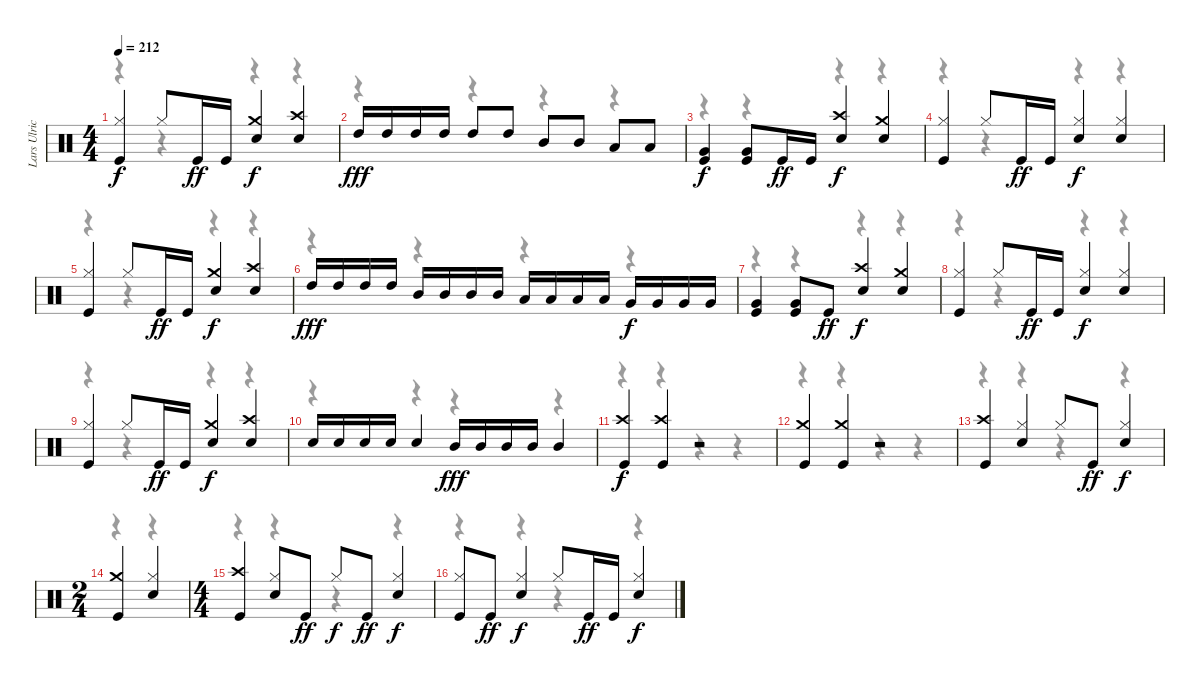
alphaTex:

\track ("Lars Ulrich" "Lars Ulric") {instrument percussion}
\staff {score}
\articulation defaults
\voice
\ts (4 4)
\tempo 212
\clef neutral
\ks c
("Hi-Hat (closed)" "Kick (hit)").4{dy f} "Hi-Hat (closed)".8 "Kick (hit)".16{dy ff} "Kick (hit)".16 ("Crash medium (hit)" "Snare (hit) 2").4{dy f} ("Crash high (hit)" "Snare (hit) 2").4 |
"High Tom (hit)".16{dy fff} "High Tom (hit)".16 "High Tom (hit)".16 "High Tom (hit)".16 "High Tom (hit)".8 "High Tom (hit)".8 "Mid Tom (hit)".8 "Mid Tom (hit)".8 "Low Tom (hit)".8 "Low Tom (hit)".8 |
("Very Low Tom (hit)" "Kick (hit)").4{dy f} ("Very Low Tom (hit)" "Kick (hit)").8 "Kick (hit)".16{dy ff} "Kick (hit)".16 ("Crash high (hit)" "Snare (hit) 2").4{dy f} ("Crash medium (hit)" "Snare (hit) 2").4 |
("Hi-Hat (closed)" "Kick (hit)").4 "Hi-Hat (closed)".8 "Kick (hit)".16{dy ff} "Kick (hit)".16 ("Hi-Hat (closed)" "Snare (hit) 2").4{dy f} ("Hi-Hat (closed)" "Snare (hit) 2").4 |
("Hi-Hat (closed)" "Kick (hit)").4 "Hi-Hat (closed)".8 "Kick (hit)".16{dy ff} "Kick (hit)".16 ("Crash medium (hit)" "Snare (hit) 2").4{dy f} ("Crash high (hit)" "Snare (hit) 2").4 |
"High Tom (hit)".16{dy fff} "High Tom (hit)".16 "High Tom (hit)".16 "High Tom (hit)".16 "Mid Tom (hit)".16 "Mid Tom (hit)".16 "Mid Tom (hit)".16 "Mid Tom (hit)".16 "Low Tom (hit)".16 "Low Tom (hit)".16 "Low Tom (hit)".16 "Low Tom (hit)".16 "Very Low Tom (hit)".16{dy f} "Very Low Tom (hit)".16 "Very Low Tom (hit)".16 "Very Low Tom (hit)".16 |
("Very Low Tom (hit)" "Kick (hit)").4 ("Very Low Tom (hit)" "Kick (hit)").8 "Kick (hit)".8{dy ff} ("Crash high (hit)" "Snare (hit) 2").4{dy f} ("Crash medium (hit)" "Snare (hit) 2").4 |
("Hi-Hat (closed)" "Kick (hit)").4 "Hi-Hat (closed)".8 "Kick (hit)".16{dy ff} "Kick (hit)".16 ("Hi-Hat (closed)" "Snare (hit) 2").4{dy f} ("Hi-Hat (closed)" "Snare (hit) 2").4 |
("Hi-Hat (closed)" "Kick (hit)").4 "Hi-Hat (closed)".8 "Kick (hit)".16{dy ff} "Kick (hit)".16 ("Crash medium (hit)" "Snare (hit) 2").4{dy f} ("Crash high (hit)" "Snare (hit) 2").4 |
"Snare (hit) 2".16 "Snare (hit) 2".16 "Snare (hit) 2".16 "Snare (hit) 2".16 "Snare (hit) 2".4 "Mid Tom (hit)".16{dy fff} "Mid Tom (hit)".16 "Mid Tom (hit)".16 "Mid Tom (hit)".16 "Mid Tom (hit)".4 |
("Crash high (hit)" "Kick (hit)").4{dy f} ("Crash high (hit)" "Kick (hit)").4 r.2 |
("Crash medium (hit)" "Kick (hit)").4 ("Crash medium (hit)" "Kick (hit)").4 r.2 |
("Crash high (hit)" "Kick (hit)").4 ("Hi-Hat (closed)" "Snare (hit) 2").4 "Hi-Hat (closed)".8 "Kick (hit)".8{dy ff} ("Hi-Hat (closed)" "Snare (hit) 2").4{dy f} |
\ts (2 4)
("Crash medium (hit)" "Kick (hit)").4 ("Hi-Hat (closed)" "Snare (hit) 2").4 |
\ts (4 4)
("Crash high (hit)" "Kick (hit)").4 ("Hi-Hat (closed)" "Snare (hit) 2").8 "Kick (hit)".8{dy ff} "Hi-Hat (closed)".8{dy f} "Kick (hit)".8{dy ff} ("Hi-Hat (closed)" "Snare (hit) 2").4{dy f} |
("Hi-Hat (closed)" "Kick (hit)").8 "Kick (hit)".8{dy ff} ("Hi-Hat (closed)" "Snare (hit) 2").4{dy f} "Hi-Hat (closed)".8 "Kick (hit)".16{dy ff} "Kick (hit)".16 ("Hi-Hat (closed)" "Snare (hit) 2").4{dy f}
\voice
\clef neutral
\ottava regular
\simile none
\ks c
r.4{dy f} r.4 r.4 r.4 |
r.4 r.4 r.4 r.4 |
r.4 r.4 r.4 r.4 |
r.4 r.4 r.4 r.4 |
r.4 r.4 r.4 r.4 |
r.4 r.4 r.4 r.4 |
r.4 r.4 r.4 r.4 |
r.4 r.4 r.4 r.4 |
r.4 r.4 r.4 r.4 |
r.4 r.4 r.4 r.4 |
r.4 r.4 r.4 r.4 |
r.4 r.4 r.4 r.4 |
r.4 r.4 r.4 r.4 |
r.4 r.4 |
r.4 r.4 r.4 r.4 |
r.4 r.4 r.4 r.4
